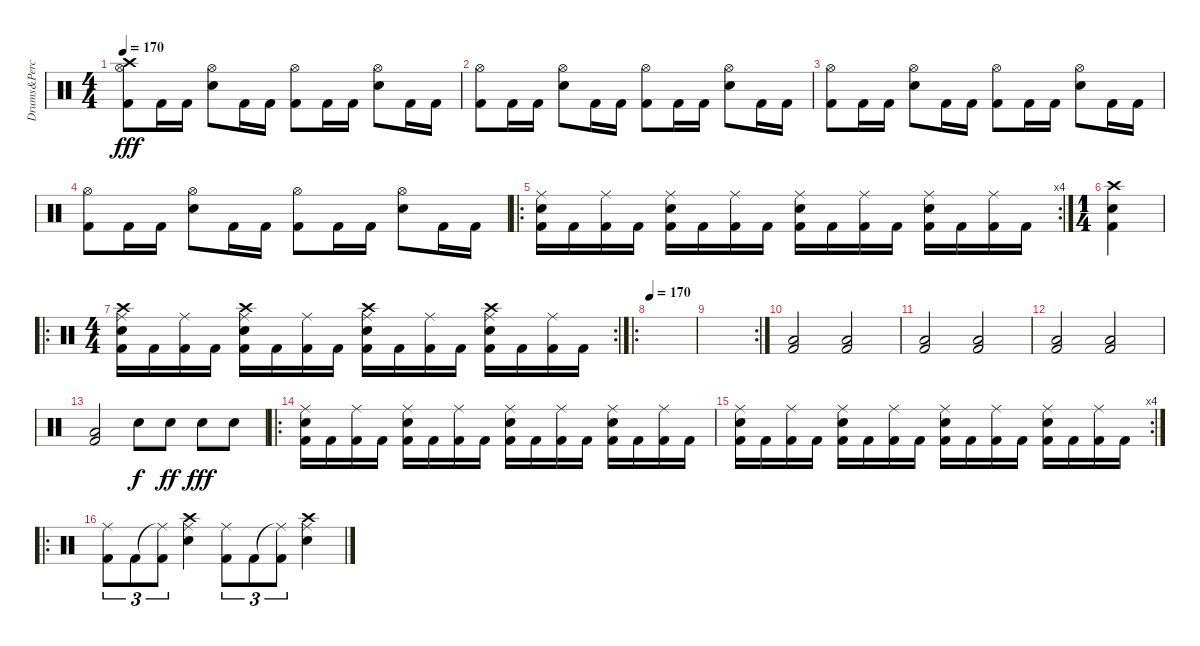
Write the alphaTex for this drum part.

\track ("Drums&Percusion" "Drums&Perc") {instrument percussion}
\staff {score}
\articulation defaults
\ts (4 4)
\tempo 170
\clef neutral
\ks c
("Hi-Hat (open)" "Crash high (hit)" "Kick (hit) 2").8{dy fff} "Kick (hit) 2".16 "Kick (hit) 2".16 ("Hi-Hat (open)" "Snare (hit) 2").8 "Kick (hit) 2".16 "Kick (hit) 2".16 ("Hi-Hat (open)" "Kick (hit) 2").8 "Kick (hit) 2".16 "Kick (hit) 2".16 ("Hi-Hat (open)" "Snare (hit) 2").8 "Kick (hit) 2".16 "Kick (hit) 2".16 |
("Hi-Hat (open)" "Kick (hit) 2").8 "Kick (hit) 2".16 "Kick (hit) 2".16 ("Hi-Hat (open)" "Snare (hit) 2").8 "Kick (hit) 2".16 "Kick (hit) 2".16 ("Hi-Hat (open)" "Kick (hit) 2").8 "Kick (hit) 2".16 "Kick (hit) 2".16 ("Hi-Hat (open)" "Snare (hit) 2").8 "Kick (hit) 2".16 "Kick (hit) 2".16 |
("Hi-Hat (open)" "Kick (hit) 2").8 "Kick (hit) 2".16 "Kick (hit) 2".16 ("Hi-Hat (open)" "Snare (hit) 2").8 "Kick (hit) 2".16 "Kick (hit) 2".16 ("Hi-Hat (open)" "Kick (hit) 2").8 "Kick (hit) 2".16 "Kick (hit) 2".16 ("Hi-Hat (open)" "Snare (hit) 2").8 "Kick (hit) 2".16 "Kick (hit) 2".16 |
("Hi-Hat (open)" "Kick (hit) 2").8 "Kick (hit) 2".16 "Kick (hit) 2".16 ("Hi-Hat (open)" "Snare (hit) 2").8 "Kick (hit) 2".16 "Kick (hit) 2".16 ("Hi-Hat (open)" "Kick (hit) 2").8 "Kick (hit) 2".16 "Kick (hit) 2".16 ("Hi-Hat (open)" "Snare (hit) 2").8 "Kick (hit) 2".16 "Kick (hit) 2".16 |
\ro
\rc 4
("Ride (middle)" "Snare (hit) 2" "Kick (hit) 2").16 "Kick (hit) 2".16 ("Ride (middle)" "Kick (hit) 2").16 "Kick (hit) 2".16 ("Ride (middle)" "Snare (hit) 2" "Kick (hit) 2").16 "Kick (hit) 2".16 ("Ride (middle)" "Kick (hit) 2").16 "Kick (hit) 2".16 ("Ride (middle)" "Snare (hit) 2" "Kick (hit) 2").16 "Kick (hit) 2".16 ("Ride (middle)" "Kick (hit) 2").16 "Kick (hit) 2".16 ("Ride (middle)" "Snare (hit) 2" "Kick (hit) 2").16 "Kick (hit) 2".16 ("Ride (middle)" "Kick (hit) 2").16 "Kick (hit) 2".16 |
\ts (1 4)
("Crash high (hit)" "Snare (hit) 2" "Kick (hit) 2").4 |
\ro
\rc 2
\ts (4 4)
("Ride (middle)" "Crash high (hit)" "Snare (hit) 2" "Kick (hit) 2").16 "Kick (hit) 2".16 ("Ride (middle)" "Kick (hit) 2").16 "Kick (hit) 2".16 ("Ride (middle)" "Crash high (hit)" "Snare (hit) 2" "Kick (hit) 2").16 "Kick (hit) 2".16 ("Ride (middle)" "Kick (hit) 2").16 "Kick (hit) 2".16 ("Ride (middle)" "Crash high (hit)" "Snare (hit) 2" "Kick (hit) 2").16 "Kick (hit) 2".16 ("Ride (middle)" "Kick (hit) 2").16 "Kick (hit) 2".16 ("Ride (middle)" "Crash high (hit)" "Snare (hit) 2" "Kick (hit) 2").16 "Kick (hit) 2".16 ("Ride (middle)" "Kick (hit) 2").16 "Kick (hit) 2".16 |
\ro
\tempo 170
|
\rc 2
|
("Low Tom (hit)" "Kick (hit) 2").2{balance 0} ("Low Floor Tom (hit)" "Kick (hit) 2").2{balance 16} |
("Low Tom (hit)" "Kick (hit) 2").2{balance 0} ("Low Floor Tom (hit)" "Kick (hit) 2").2{balance 16} |
("Low Tom (hit)" "Kick (hit) 2").2{balance 0} ("Low Floor Tom (hit)" "Kick (hit) 2").2{balance 16} |
("Low Tom (hit)" "Kick (hit) 2").2 "Snare (hit) 2".8{dy f balance 8} "Snare (hit) 2".8{dy ff} "Snare (hit) 2".8{dy fff} "Snare (hit) 2".8 |
\ro
("Ride (middle)" "Snare (hit) 2" "Kick (hit) 2").16 "Kick (hit) 2".16 ("Ride (middle)" "Kick (hit) 2").16 "Kick (hit) 2".16 ("Ride (middle)" "Snare (hit) 2" "Kick (hit) 2").16 "Kick (hit) 2".16 ("Ride (middle)" "Kick (hit) 2").16 "Kick (hit) 2".16 ("Ride (middle)" "Snare (hit) 2" "Kick (hit) 2").16 "Kick (hit) 2".16 ("Ride (middle)" "Kick (hit) 2").16 "Kick (hit) 2".16 ("Ride (middle)" "Snare (hit) 2" "Kick (hit) 2").16 "Kick (hit) 2".16 ("Ride (middle)" "Kick (hit) 2").16 "Kick (hit) 2".16 |
\rc 4
("Ride (middle)" "Snare (hit) 2" "Kick (hit) 2").16 "Kick (hit) 2".16 ("Ride (middle)" "Kick (hit) 2").16 "Kick (hit) 2".16 ("Ride (middle)" "Snare (hit) 2" "Kick (hit) 2").16 "Kick (hit) 2".16 ("Ride (middle)" "Kick (hit) 2").16 "Kick (hit) 2".16 ("Ride (middle)" "Snare (hit) 2" "Kick (hit) 2").16 "Kick (hit) 2".16 ("Ride (middle)" "Kick (hit) 2").16 "Kick (hit) 2".16 ("Ride (middle)" "Snare (hit) 2" "Kick (hit) 2").16 "Kick (hit) 2".16 ("Ride (middle)" "Kick (hit) 2").16 "Kick (hit) 2".16 |
\ro
("Ride (middle)" "Kick (hit) 2").8{tu (3 2)} "Kick (hit) 2".8{tu (3 2)} ("Ride (middle)"{t} "Kick (hit) 2").8{tu (3 2)} ("Ride (middle)" "Crash high (hit)" "Snare (hit) 2").4 ("Ride (middle)" "Kick (hit) 2").8{tu (3 2)} "Kick (hit) 2".8{tu (3 2)} ("Ride (middle)"{t} "Kick (hit) 2").8{tu (3 2)} ("Ride (middle)" "Crash high (hit)" "Snare (hit) 2").4
